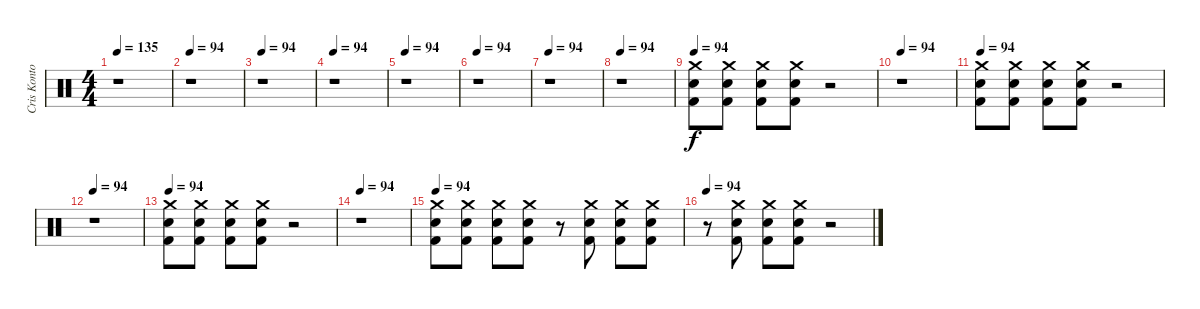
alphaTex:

\track ("Cris Kontos" "Cris Konto") {instrument percussion}
\staff {score}
\articulation defaults
\ts (4 4)
\tempo 135
\tempo 94
\tempo 135
\clef neutral
\ks c
r.1{dy f} |
\tempo 94
r.1 |
\tempo 94
r.1 |
\tempo 94
r.1 |
\tempo 94
r.1 |
\tempo 94
r.1 |
\tempo 94
r.1 |
\tempo 94
r.1 |
\tempo 94
("Crash medium (hit)" "Electric Snare (hit)" "Kick (hit) 2").8 ("Crash medium (hit)" "Electric Snare (hit)" "Kick (hit) 2").8 ("Crash medium (hit)" "Electric Snare (hit)" "Kick (hit) 2").8 ("Crash medium (hit)" "Electric Snare (hit)" "Kick (hit) 2").8 r.2 |
\tempo 94
r.1 |
\tempo 94
("Crash medium (hit)" "Electric Snare (hit)" "Kick (hit) 2").8 ("Crash medium (hit)" "Electric Snare (hit)" "Kick (hit) 2").8 ("Crash medium (hit)" "Electric Snare (hit)" "Kick (hit) 2").8 ("Crash medium (hit)" "Electric Snare (hit)" "Kick (hit) 2").8 r.2 |
\tempo 94
r.1 |
\tempo 94
("Crash medium (hit)" "Electric Snare (hit)" "Kick (hit) 2").8 ("Crash medium (hit)" "Electric Snare (hit)" "Kick (hit) 2").8 ("Crash medium (hit)" "Electric Snare (hit)" "Kick (hit) 2").8 ("Crash medium (hit)" "Electric Snare (hit)" "Kick (hit) 2").8 r.2 |
\tempo 94
r.1 |
\tempo 94
("Crash medium (hit)" "Electric Snare (hit)" "Kick (hit) 2").8 ("Crash medium (hit)" "Electric Snare (hit)" "Kick (hit) 2").8 ("Crash medium (hit)" "Electric Snare (hit)" "Kick (hit) 2").8 ("Crash medium (hit)" "Electric Snare (hit)" "Kick (hit) 2").8 r.8 ("Crash medium (hit)" "Electric Snare (hit)" "Kick (hit) 2").8 ("Crash medium (hit)" "Electric Snare (hit)" "Kick (hit) 2").8 ("Crash medium (hit)" "Electric Snare (hit)" "Kick (hit) 2").8 |
\tempo 94
r.8 ("Crash medium (hit)" "Electric Snare (hit)" "Kick (hit) 2").8 ("Crash medium (hit)" "Electric Snare (hit)" "Kick (hit) 2").8 ("Crash medium (hit)" "Electric Snare (hit)" "Kick (hit) 2").8 r.2
